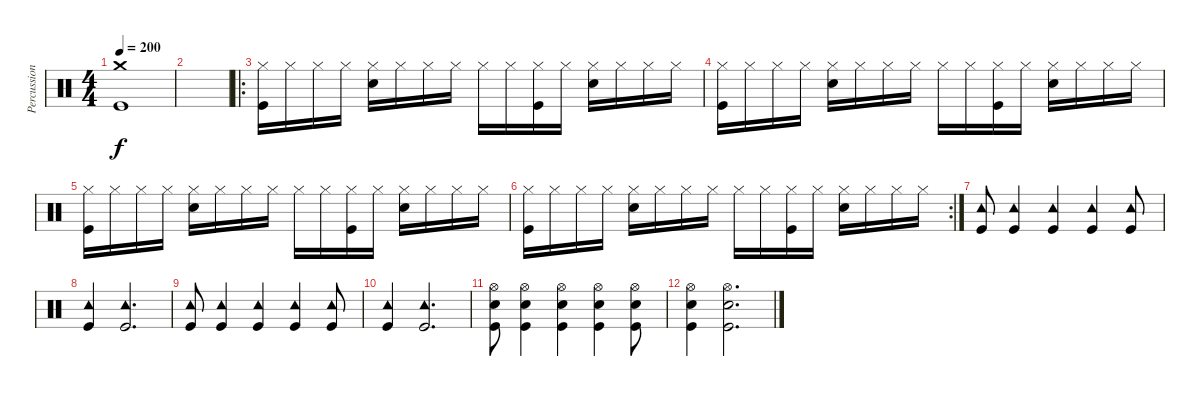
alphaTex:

\track ("Percussion" "Percussion") {instrument percussion}
\staff {score}
\articulation defaults
\ts (4 4)
\tempo 200
\clef neutral
\ks c
("Crash medium (hit)" "Kick (hit)").1{dy f} |
|
\ro
("Hi-Hat (closed)" "Kick (hit)").16 "Hi-Hat (closed)".16 "Hi-Hat (closed)".16 "Hi-Hat (closed)".16 ("Hi-Hat (closed)" "Snare (hit) 2").16 "Hi-Hat (closed)".16 "Hi-Hat (closed)".16 "Hi-Hat (closed)".16 "Hi-Hat (closed)".16 "Hi-Hat (closed)".16 ("Hi-Hat (closed)" "Kick (hit)").16 "Hi-Hat (closed)".16 ("Hi-Hat (closed)" "Snare (hit) 2").16 "Hi-Hat (closed)".16 "Hi-Hat (closed)".16 "Hi-Hat (closed)".16 |
("Hi-Hat (closed)" "Kick (hit)").16 "Hi-Hat (closed)".16 "Hi-Hat (closed)".16 "Hi-Hat (closed)".16 ("Hi-Hat (closed)" "Snare (hit) 2").16 "Hi-Hat (closed)".16 "Hi-Hat (closed)".16 "Hi-Hat (closed)".16 "Hi-Hat (closed)".16 "Hi-Hat (closed)".16 ("Hi-Hat (closed)" "Kick (hit)").16 "Hi-Hat (closed)".16 ("Hi-Hat (closed)" "Snare (hit) 2").16 "Hi-Hat (closed)".16 "Hi-Hat (closed)".16 "Hi-Hat (closed)".16 |
("Hi-Hat (closed)" "Kick (hit)").16 "Hi-Hat (closed)".16 "Hi-Hat (closed)".16 "Hi-Hat (closed)".16 ("Hi-Hat (closed)" "Snare (hit) 2").16 "Hi-Hat (closed)".16 "Hi-Hat (closed)".16 "Hi-Hat (closed)".16 "Hi-Hat (closed)".16 "Hi-Hat (closed)".16 ("Hi-Hat (closed)" "Kick (hit)").16 "Hi-Hat (closed)".16 ("Hi-Hat (closed)" "Snare (hit) 2").16 "Hi-Hat (closed)".16 "Hi-Hat (closed)".16 "Hi-Hat (closed)".16 |
\rc 2
("Hi-Hat (closed)" "Kick (hit)").16 "Hi-Hat (closed)".16 "Hi-Hat (closed)".16 "Hi-Hat (closed)".16 ("Hi-Hat (closed)" "Snare (hit) 2").16 "Hi-Hat (closed)".16 "Hi-Hat (closed)".16 "Hi-Hat (closed)".16 "Hi-Hat (closed)".16 "Hi-Hat (closed)".16 ("Hi-Hat (closed)" "Kick (hit)").16 "Hi-Hat (closed)".16 ("Hi-Hat (closed)" "Snare (hit) 2").16 "Hi-Hat (closed)".16 "Hi-Hat (closed)".16 "Hi-Hat (closed)".16 |
("Tambourine (hit)" "Kick (hit)").8 ("Tambourine (hit)" "Kick (hit)").4 ("Tambourine (hit)" "Kick (hit)").4 ("Tambourine (hit)" "Kick (hit)").4 ("Tambourine (hit)" "Kick (hit)").8 |
("Tambourine (hit)" "Kick (hit)").4 ("Tambourine (hit)" "Kick (hit)").2{d} |
("Tambourine (hit)" "Kick (hit)").8 ("Tambourine (hit)" "Kick (hit)").4 ("Tambourine (hit)" "Kick (hit)").4 ("Tambourine (hit)" "Kick (hit)").4 ("Tambourine (hit)" "Kick (hit)").8 |
("Tambourine (hit)" "Kick (hit)").4 ("Tambourine (hit)" "Kick (hit)").2{d} |
("Hi-Hat (open)" "Snare (hit) 2" "Kick (hit)").8 ("Hi-Hat (open)" "Snare (hit) 2" "Kick (hit)").4 ("Hi-Hat (open)" "Snare (hit) 2" "Kick (hit)").4 ("Hi-Hat (open)" "Snare (hit) 2" "Kick (hit)").4 ("Hi-Hat (open)" "Snare (hit) 2" "Kick (hit)").8 |
("Hi-Hat (open)" "Snare (hit) 2" "Kick (hit)").4 ("Hi-Hat (open)" "Snare (hit) 2" "Kick (hit)").2{d}
